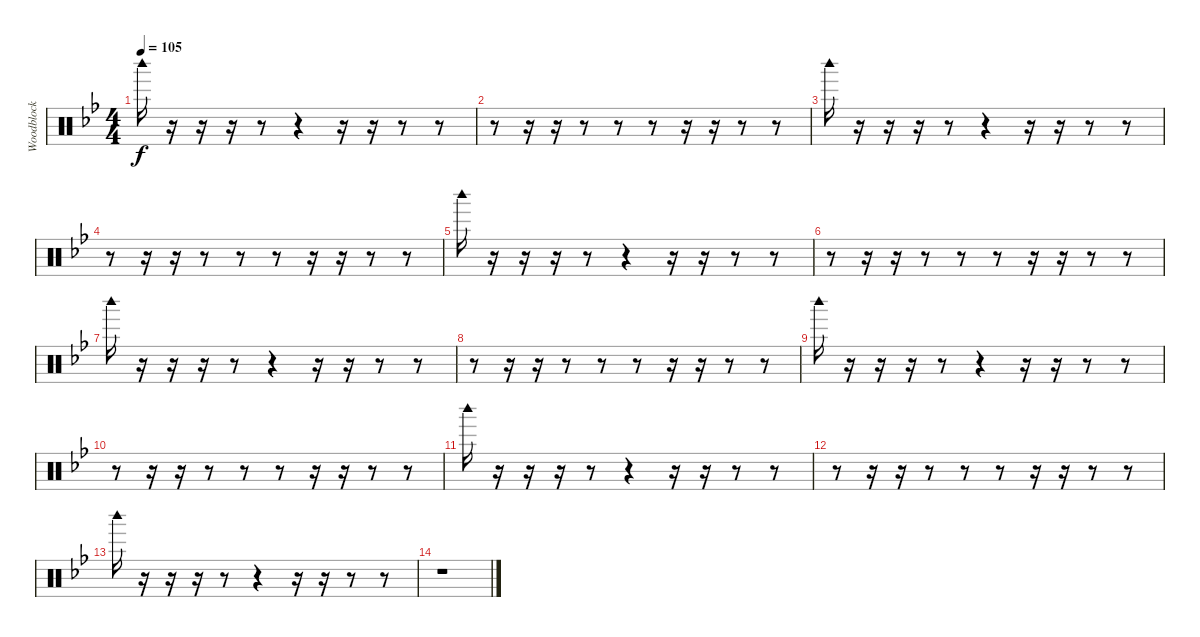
\track ("Woodblock" "Woodblock") {instrument percussion}
\staff {score}
\articulation defaults
\ts (4 4)
\tempo 105
\clef neutral
\ks gminor "Woodblock high (hit)".16{dy f}
r.16 r.16 r.16 r.8 r.4 r.16 r.16 r.8 r.8 |
r.8 r.16 r.16 r.8 r.8 r.8 r.16 r.16 r.8 r.8 |
"Woodblock high (hit)".16 r.16 r.16 r.16 r.8 r.4 r.16 r.16 r.8 r.8 |
r.8 r.16 r.16 r.8 r.8 r.8 r.16 r.16 r.8 r.8 |
"Woodblock high (hit)".16 r.16 r.16 r.16 r.8 r.4 r.16 r.16 r.8 r.8 |
r.8 r.16 r.16 r.8 r.8 r.8 r.16 r.16 r.8 r.8 |
"Woodblock high (hit)".16 r.16 r.16 r.16 r.8 r.4 r.16 r.16 r.8 r.8 |
r.8 r.16 r.16 r.8 r.8 r.8 r.16 r.16 r.8 r.8 |
"Woodblock high (hit)".16 r.16 r.16 r.16 r.8 r.4 r.16 r.16 r.8 r.8 |
r.8 r.16 r.16 r.8 r.8 r.8 r.16 r.16 r.8 r.8 |
"Woodblock high (hit)".16 r.16 r.16 r.16 r.8 r.4 r.16 r.16 r.8 r.8 |
r.8 r.16 r.16 r.8 r.8 r.8 r.16 r.16 r.8 r.8 |
"Woodblock high (hit)".16 r.16 r.16 r.16 r.8 r.4 r.16 r.16 r.8 r.8 |
r.1
